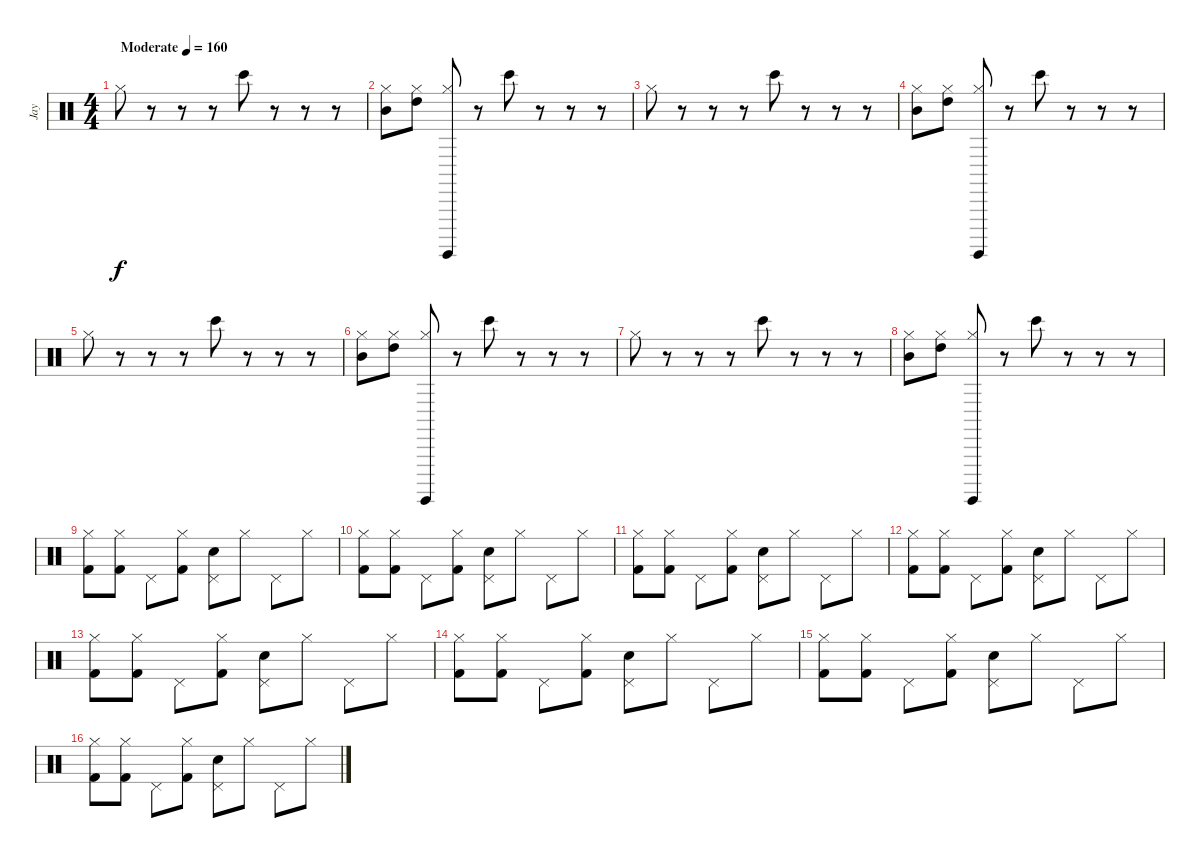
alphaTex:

\track ("Jay" "Jay") {instrument percussion}
\staff {score}
\articulation defaults
\ts (4 4)
\tempo (160 "Moderate")
\clef neutral
\ks c "Hi-Hat (closed)".8{dy f}
r.8 r.8 r.8 "Bongo High (hit)".8 r.8 r.8 r.8 |
("Mid Tom (hit)" "Hi-Hat (closed)").8 ("High Tom (hit)" "Hi-Hat (closed)").8 ("Surdo (hit)" "Hi-Hat (closed)").8 r.8 "Bongo High (hit)".8 r.8 r.8 r.8 |
"Hi-Hat (closed)".8 r.8 r.8 r.8 "Bongo High (hit)".8 r.8 r.8 r.8 |
("Mid Tom (hit)" "Hi-Hat (closed)").8 ("High Tom (hit)" "Hi-Hat (closed)").8 ("Surdo (hit)" "Hi-Hat (closed)").8 r.8 "Bongo High (hit)".8 r.8 r.8 r.8 |
"Hi-Hat (closed)".8 r.8 r.8 r.8 "Bongo High (hit)".8 r.8 r.8 r.8 |
("Mid Tom (hit)" "Hi-Hat (closed)").8 ("High Tom (hit)" "Hi-Hat (closed)").8 ("Surdo (hit)" "Hi-Hat (closed)").8 r.8 "Bongo High (hit)".8 r.8 r.8 r.8 |
"Hi-Hat (closed)".8 r.8 r.8 r.8 "Bongo High (hit)".8 r.8 r.8 r.8 |
("Mid Tom (hit)" "Hi-Hat (closed)").8 ("High Tom (hit)" "Hi-Hat (closed)").8 ("Surdo (hit)" "Hi-Hat (closed)").8 r.8 "Bongo High (hit)".8 r.8 r.8 r.8 |
("Hi-Hat (closed)" "Kick (hit) 2").8 ("Hi-Hat (closed)" "Kick (hit) 2").8 "Pedal Hi-Hat (hit)".8 ("Hi-Hat (closed)" "Kick (hit) 2").8 ("Pedal Hi-Hat (hit)" "Snare (hit) 2").8 "Hi-Hat (closed)".8 "Pedal Hi-Hat (hit)".8 "Hi-Hat (closed)".8 |
("Hi-Hat (closed)" "Kick (hit) 2").8 ("Hi-Hat (closed)" "Kick (hit) 2").8 "Pedal Hi-Hat (hit)".8 ("Hi-Hat (closed)" "Kick (hit) 2").8 ("Pedal Hi-Hat (hit)" "Snare (hit) 2").8 "Hi-Hat (closed)".8 "Pedal Hi-Hat (hit)".8 "Hi-Hat (closed)".8 |
("Hi-Hat (closed)" "Kick (hit) 2").8 ("Hi-Hat (closed)" "Kick (hit) 2").8 "Pedal Hi-Hat (hit)".8 ("Hi-Hat (closed)" "Kick (hit) 2").8 ("Pedal Hi-Hat (hit)" "Snare (hit) 2").8 "Hi-Hat (closed)".8 "Pedal Hi-Hat (hit)".8 "Hi-Hat (closed)".8 |
("Hi-Hat (closed)" "Kick (hit) 2").8 ("Hi-Hat (closed)" "Kick (hit) 2").8 "Pedal Hi-Hat (hit)".8 ("Hi-Hat (closed)" "Kick (hit) 2").8 ("Pedal Hi-Hat (hit)" "Snare (hit) 2").8 "Hi-Hat (closed)".8 "Pedal Hi-Hat (hit)".8 "Hi-Hat (closed)".8 |
("Hi-Hat (closed)" "Kick (hit) 2").8 ("Hi-Hat (closed)" "Kick (hit) 2").8 "Pedal Hi-Hat (hit)".8 ("Hi-Hat (closed)" "Kick (hit) 2").8 ("Pedal Hi-Hat (hit)" "Snare (hit) 2").8 "Hi-Hat (closed)".8 "Pedal Hi-Hat (hit)".8 "Hi-Hat (closed)".8 |
("Hi-Hat (closed)" "Kick (hit) 2").8 ("Hi-Hat (closed)" "Kick (hit) 2").8 "Pedal Hi-Hat (hit)".8 ("Hi-Hat (closed)" "Kick (hit) 2").8 ("Pedal Hi-Hat (hit)" "Snare (hit) 2").8 "Hi-Hat (closed)".8 "Pedal Hi-Hat (hit)".8 "Hi-Hat (closed)".8 |
("Hi-Hat (closed)" "Kick (hit) 2").8 ("Hi-Hat (closed)" "Kick (hit) 2").8 "Pedal Hi-Hat (hit)".8 ("Hi-Hat (closed)" "Kick (hit) 2").8 ("Pedal Hi-Hat (hit)" "Snare (hit) 2").8 "Hi-Hat (closed)".8 "Pedal Hi-Hat (hit)".8 "Hi-Hat (closed)".8 |
("Hi-Hat (closed)" "Kick (hit) 2").8 ("Hi-Hat (closed)" "Kick (hit) 2").8 "Pedal Hi-Hat (hit)".8 ("Hi-Hat (closed)" "Kick (hit) 2").8 ("Pedal Hi-Hat (hit)" "Snare (hit) 2").8 "Hi-Hat (closed)".8 "Pedal Hi-Hat (hit)".8 "Hi-Hat (closed)".8
